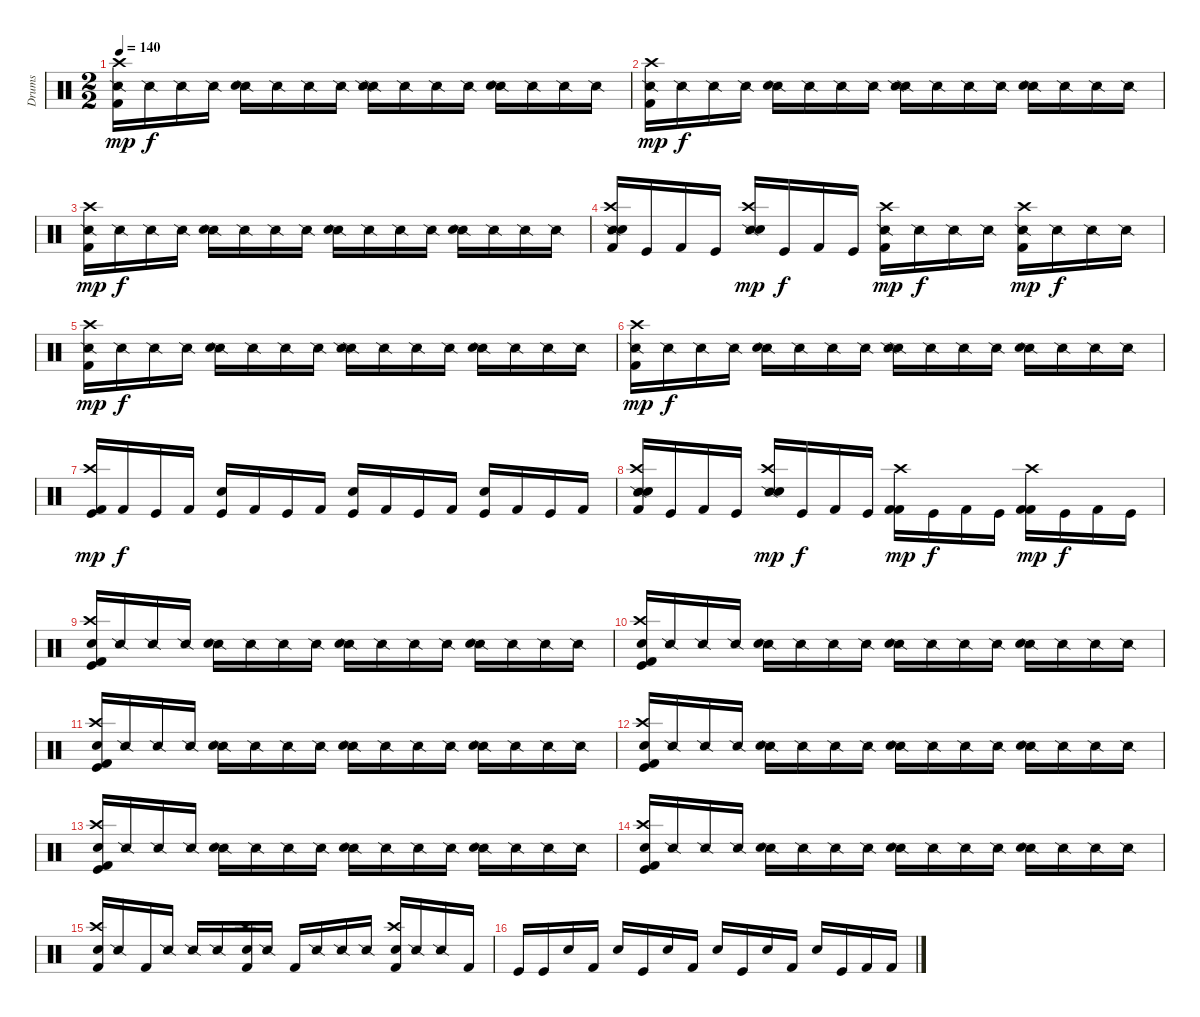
\track ("Drums" "Drums") {instrument percussion}
\staff {score}
\articulation defaults
\ts (2 2)
\tempo 140
\clef neutral
\ks c
("Snare (side stick) 2" "Kick (hit) 2" "Crash high (hit)").16{dy mp} "Snare (side stick) 2".16{dy f} "Snare (side stick) 2".16 "Snare (side stick) 2".16 ("Snare (side stick) 2" "Snare (hit) 2").16 "Snare (side stick) 2".16 "Snare (side stick) 2".16 "Snare (side stick) 2".16 ("Snare (side stick) 2" "Snare (side stick) 2").16 "Snare (side stick) 2".16 "Snare (side stick) 2".16 "Snare (side stick) 2".16 ("Snare (side stick) 2" "Snare (hit) 2").16 "Snare (side stick) 2".16 "Snare (side stick) 2".16 "Snare (side stick) 2".16 |
("Snare (side stick) 2" "Kick (hit) 2" "Crash high (hit)").16{dy mp} "Snare (side stick) 2".16{dy f} "Snare (side stick) 2".16 "Snare (side stick) 2".16 ("Snare (side stick) 2" "Snare (hit) 2").16 "Snare (side stick) 2".16 "Snare (side stick) 2".16 "Snare (side stick) 2".16 ("Snare (side stick) 2" "Snare (side stick) 2").16 "Snare (side stick) 2".16 "Snare (side stick) 2".16 "Snare (side stick) 2".16 ("Snare (side stick) 2" "Snare (hit) 2").16 "Snare (side stick) 2".16 "Snare (side stick) 2".16 "Snare (side stick) 2".16 |
("Snare (side stick) 2" "Kick (hit) 2" "Crash high (hit)").16{dy mp} "Snare (side stick) 2".16{dy f} "Snare (side stick) 2".16 "Snare (side stick) 2".16 ("Snare (side stick) 2" "Snare (hit) 2").16 "Snare (side stick) 2".16 "Snare (side stick) 2".16 "Snare (side stick) 2".16 ("Snare (side stick) 2" "Snare (hit) 2").16 "Snare (side stick) 2".16 "Snare (side stick) 2".16 "Snare (side stick) 2".16 ("Snare (side stick) 2" "Snare (hit) 2").16 "Snare (side stick) 2".16 "Snare (side stick) 2".16 "Snare (side stick) 2".16 |
("Snare (side stick) 2" "Snare (hit) 2" "Kick (hit) 2" "Crash high (hit)").16 "Kick (hit)".16 "Kick (hit) 2".16 "Kick (hit)".16 ("Snare (side stick) 2" "Snare (hit) 2" "Crash high (hit)").16{dy mp} "Kick (hit)".16{dy f} "Kick (hit) 2".16 "Kick (hit)".16 ("Snare (side stick) 2" "Kick (hit) 2" "Crash high (hit)").16{dy mp} "Snare (side stick) 2".16{dy f} "Snare (side stick) 2".16 "Snare (side stick) 2".16 ("Snare (side stick) 2" "Kick (hit) 2" "Crash high (hit)").16{dy mp} "Snare (side stick) 2".16{dy f} "Snare (side stick) 2".16 "Snare (side stick) 2".16 |
("Snare (side stick) 2" "Kick (hit) 2" "Crash high (hit)").16{dy mp} "Snare (side stick) 2".16{dy f} "Snare (side stick) 2".16 "Snare (side stick) 2".16 ("Snare (side stick) 2" "Snare (hit) 2").16 "Snare (side stick) 2".16 "Snare (side stick) 2".16 "Snare (side stick) 2".16 ("Snare (side stick) 2" "Snare (side stick) 2").16 "Snare (side stick) 2".16 "Snare (side stick) 2".16 "Snare (side stick) 2".16 ("Snare (side stick) 2" "Snare (hit) 2").16 "Snare (side stick) 2".16 "Snare (side stick) 2".16 "Snare (side stick) 2".16 |
("Snare (side stick) 2" "Kick (hit) 2" "Crash high (hit)").16{dy mp} "Snare (side stick) 2".16{dy f} "Snare (side stick) 2".16 "Snare (side stick) 2".16 ("Snare (side stick) 2" "Snare (hit) 2").16 "Snare (side stick) 2".16 "Snare (side stick) 2".16 "Snare (side stick) 2".16 ("Snare (side stick) 2" "Snare (side stick) 2").16 "Snare (side stick) 2".16 "Snare (side stick) 2".16 "Snare (side stick) 2".16 ("Snare (side stick) 2" "Snare (hit) 2").16 "Snare (side stick) 2".16 "Snare (side stick) 2".16 "Snare (side stick) 2".16 |
("Kick (hit)" "Kick (hit) 2" "Crash high (hit)").16{dy mp} "Kick (hit) 2".16{dy f} "Kick (hit)".16 "Kick (hit) 2".16 ("Kick (hit)" "Snare (hit) 2").16 "Kick (hit) 2".16 "Kick (hit)".16 "Kick (hit) 2".16 ("Kick (hit)" "Snare (hit) 2").16 "Kick (hit) 2".16 "Kick (hit)".16 "Kick (hit) 2".16 ("Kick (hit)" "Snare (hit) 2").16 "Kick (hit) 2".16 "Kick (hit)".16 "Kick (hit) 2".16 |
("Snare (side stick) 2" "Snare (hit) 2" "Kick (hit) 2" "Crash high (hit)").16 "Kick (hit)".16 "Kick (hit) 2".16 "Kick (hit)".16 ("Snare (side stick) 2" "Snare (hit) 2" "Crash high (hit)").16{dy mp} "Kick (hit)".16{dy f} "Kick (hit) 2".16 "Kick (hit)".16 ("Kick (hit) 2" "Kick (hit) 2" "Crash high (hit)").16{dy mp} "Kick (hit)".16{dy f} "Kick (hit) 2".16 "Kick (hit)".16 ("Kick (hit) 2" "Kick (hit) 2" "Crash high (hit)").16{dy mp} "Kick (hit)".16{dy f} "Kick (hit) 2".16 "Kick (hit)".16 |
("Kick (hit)" "Kick (hit) 2" "Crash high (hit)" "Snare (hit) 2").16 "Snare (side stick) 2".16 "Snare (side stick) 2".16 "Snare (side stick) 2".16 ("Snare (side stick) 2" "Snare (hit) 2").16 "Snare (side stick) 2".16 "Snare (side stick) 2".16 "Snare (side stick) 2".16 ("Snare (side stick) 2" "Snare (hit) 2").16 "Snare (side stick) 2".16 "Snare (side stick) 2".16 "Snare (side stick) 2".16 ("Snare (side stick) 2" "Snare (hit) 2").16 "Snare (side stick) 2".16 "Snare (side stick) 2".16 "Snare (side stick) 2".16 |
("Kick (hit)" "Kick (hit) 2" "Crash high (hit)" "Snare (hit) 2").16 "Snare (side stick) 2".16 "Snare (side stick) 2".16 "Snare (side stick) 2".16 ("Snare (side stick) 2" "Snare (hit) 2").16 "Snare (side stick) 2".16 "Snare (side stick) 2".16 "Snare (side stick) 2".16 ("Snare (side stick) 2" "Snare (hit) 2").16 "Snare (side stick) 2".16 "Snare (side stick) 2".16 "Snare (side stick) 2".16 ("Snare (side stick) 2" "Snare (hit) 2").16 "Snare (side stick) 2".16 "Snare (side stick) 2".16 "Snare (side stick) 2".16 |
("Kick (hit)" "Kick (hit) 2" "Crash high (hit)" "Snare (hit) 2").16 "Snare (side stick) 2".16 "Snare (side stick) 2".16 "Snare (side stick) 2".16 ("Snare (side stick) 2" "Snare (hit) 2").16 "Snare (side stick) 2".16 "Snare (side stick) 2".16 "Snare (side stick) 2".16 ("Snare (side stick) 2" "Snare (hit) 2").16 "Snare (side stick) 2".16 "Snare (side stick) 2".16 "Snare (side stick) 2".16 ("Snare (side stick) 2" "Snare (hit) 2").16 "Snare (side stick) 2".16 "Snare (side stick) 2".16 "Snare (side stick) 2".16 |
("Kick (hit)" "Kick (hit) 2" "Crash high (hit)" "Snare (hit) 2").16 "Snare (side stick) 2".16 "Snare (side stick) 2".16 "Snare (side stick) 2".16 ("Snare (side stick) 2" "Snare (hit) 2").16 "Snare (side stick) 2".16 "Snare (side stick) 2".16 "Snare (side stick) 2".16 ("Snare (side stick) 2" "Snare (hit) 2").16 "Snare (side stick) 2".16 "Snare (side stick) 2".16 "Snare (side stick) 2".16 ("Snare (side stick) 2" "Snare (hit) 2").16 "Snare (side stick) 2".16 "Snare (side stick) 2".16 "Snare (side stick) 2".16 |
("Kick (hit)" "Kick (hit) 2" "Crash high (hit)" "Snare (hit) 2").16 "Snare (side stick) 2".16 "Snare (side stick) 2".16 "Snare (side stick) 2".16 ("Snare (side stick) 2" "Snare (hit) 2").16 "Snare (side stick) 2".16 "Snare (side stick) 2".16 "Snare (side stick) 2".16 ("Snare (side stick) 2" "Snare (hit) 2").16 "Snare (side stick) 2".16 "Snare (side stick) 2".16 "Snare (side stick) 2".16 ("Snare (side stick) 2" "Snare (hit) 2").16 "Snare (side stick) 2".16 "Snare (side stick) 2".16 "Snare (side stick) 2".16 |
("Kick (hit)" "Kick (hit) 2" "Crash high (hit)" "Snare (hit) 2").16 "Snare (side stick) 2".16 "Snare (side stick) 2".16 "Snare (side stick) 2".16 ("Snare (side stick) 2" "Snare (hit) 2").16 "Snare (side stick) 2".16 "Snare (side stick) 2".16 "Snare (side stick) 2".16 ("Snare (side stick) 2" "Snare (hit) 2").16 "Snare (side stick) 2".16 "Snare (side stick) 2".16 "Snare (side stick) 2".16 ("Snare (side stick) 2" "Snare (hit) 2").16 "Snare (side stick) 2".16 "Snare (side stick) 2".16 "Snare (side stick) 2".16 |
("Snare (hit) 2" "Crash high (hit)" "Kick (hit) 2").16 "Snare (side stick) 2".16 "Kick (hit) 2".16 "Snare (side stick) 2".16 "Snare (side stick) 2".16 "Snare (side stick) 2".16 ("Snare (hit) 2" "Crash high (hit)" "Kick (hit) 2").16 "Snare (side stick) 2".16 "Kick (hit) 2".16 "Snare (side stick) 2".16 "Snare (side stick) 2".16 "Snare (side stick) 2".16 ("Snare (hit) 2" "Crash high (hit)" "Kick (hit) 2").16 "Snare (side stick) 2".16 "Snare (side stick) 2".16 "Kick (hit) 2".16 |
"Kick (hit)".16 "Kick (hit)".16 "Snare (hit) 2".16 "Kick (hit) 2".16 "Snare (hit) 2".16 "Kick (hit)".16 "Snare (hit) 2".16 "Kick (hit) 2".16 "Snare (hit) 2".16 "Kick (hit)".16 "Snare (hit) 2".16 "Kick (hit) 2".16 "Snare (hit) 2".16 "Kick (hit)".16 "Kick (hit) 2".16 "Kick (hit) 2".16
